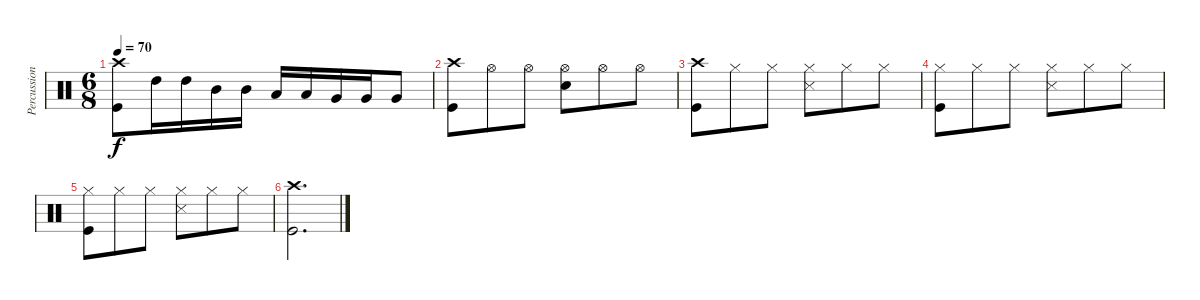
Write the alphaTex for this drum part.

\track ("Percussion" "Percussion") {instrument percussion}
\staff {score}
\articulation defaults
\ts (6 8)
\tempo 70
\clef neutral
\ks c
("Kick (hit)" "Crash high (hit)").8{dy f} "High Tom (hit)".16 "High Tom (hit)".16 "Mid Tom (hit)".16 "Mid Tom (hit)".16 "Low Tom (hit)".16 "Low Tom (hit)".16 "Very Low Tom (hit)".16 "Very Low Tom (hit)".16 "Very Low Tom (hit)".8 |
("Kick (hit)" "Crash high (hit)").8 "Hi-Hat (open)".8 "Hi-Hat (open)".8 ("Electric Snare (hit)" "Hi-Hat (open)").8 "Hi-Hat (open)".8 "Hi-Hat (open)".8 |
("Kick (hit)" "Crash high (hit)").8 "Hi-Hat (closed)".8 "Hi-Hat (closed)".8 ("Snare (side stick) 3" "Hi-Hat (closed)").8 "Hi-Hat (closed)".8 "Hi-Hat (closed)".8 |
("Kick (hit)" "Hi-Hat (closed)").8 "Hi-Hat (closed)".8 "Hi-Hat (closed)".8 ("Snare (side stick) 3" "Hi-Hat (closed)").8 "Hi-Hat (closed)".8 "Hi-Hat (closed)".8 |
("Kick (hit)" "Hi-Hat (closed)").8 "Hi-Hat (closed)".8 "Hi-Hat (closed)".8 ("Snare (side stick) 3" "Hi-Hat (closed)").8 "Hi-Hat (closed)".8 "Hi-Hat (closed)".8 |
("Kick (hit)" "Crash high (hit)").2{d}
